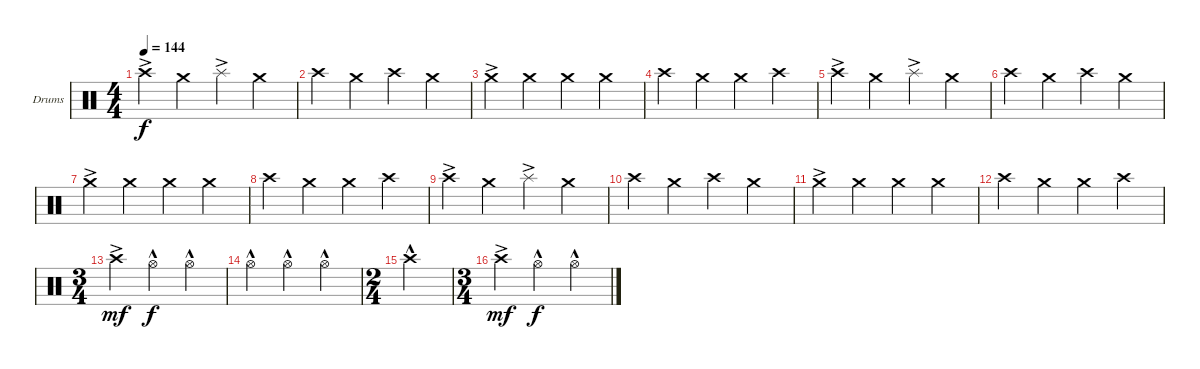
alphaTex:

\defaultSystemsLayout 4
\bracketExtendMode groupsimilarinstruments
\firstSystemTrackNameOrientation horizontal
\otherSystemsTrackNameOrientation horizontal
\track ("Cymbals" "Drums") {instrument percussion}
\staff {score}
\articulation defaults
\ts (4 4)
\tempo 144
\clef neutral
\ks c "Crash high (hit)"{ac}.4{dy f} "Crash medium (hit)".4 "Splash (hit)"{ac}.4 "Crash medium (hit)".4
|
"Crash high (hit)".4 "Crash medium (hit)".4 "Crash high (hit)".4 "Crash medium (hit)".4 |
"Crash medium (hit)"{ac}.4 "Crash medium (hit)".4 "Crash medium (hit)".4 "Crash medium (hit)".4 |
"Crash high (hit)".4 "Crash medium (hit)".4 "Crash medium (hit)".4 "Crash high (hit)".4 |
"Crash high (hit)"{ac}.4 "Crash medium (hit)".4 "Splash (hit)"{ac}.4 "Crash medium (hit)".4 |
"Crash high (hit)".4 "Crash medium (hit)".4 "Crash high (hit)".4 "Crash medium (hit)".4 |
"Crash medium (hit)"{ac}.4 "Crash medium (hit)".4 "Crash medium (hit)".4 "Crash medium (hit)".4 |
"Crash high (hit)".4 "Crash medium (hit)".4 "Crash medium (hit)".4 "Crash high (hit)".4 |
"Crash high (hit)"{ac}.4 "Crash medium (hit)".4 "Splash (hit)"{ac}.4 "Crash medium (hit)".4 |
"Crash high (hit)".4 "Crash medium (hit)".4 "Crash high (hit)".4 "Crash medium (hit)".4 |
"Crash medium (hit)"{ac}.4 "Crash medium (hit)".4 "Crash medium (hit)".4 "Crash medium (hit)".4 |
"Crash high (hit)".4 "Crash medium (hit)".4 "Crash medium (hit)".4 "Crash high (hit)".4 |
\ts (3 4)
"Crash high (hit)"{ac}.4{dy mf} "Hi-Hat (open)"{hac}.4{dy f} "Hi-Hat (open)"{hac}.4 |
"Hi-Hat (open)"{hac}.4 "Hi-Hat (open)"{hac}.4 "Hi-Hat (open)"{hac}.4 |
\ts (2 4)
"Crash high (hit)"{hac}.2 |
\ts (3 4)
"Crash high (hit)"{ac}.4{dy mf} "Hi-Hat (open)"{hac}.4{dy f} "Hi-Hat (open)"{hac}.4
